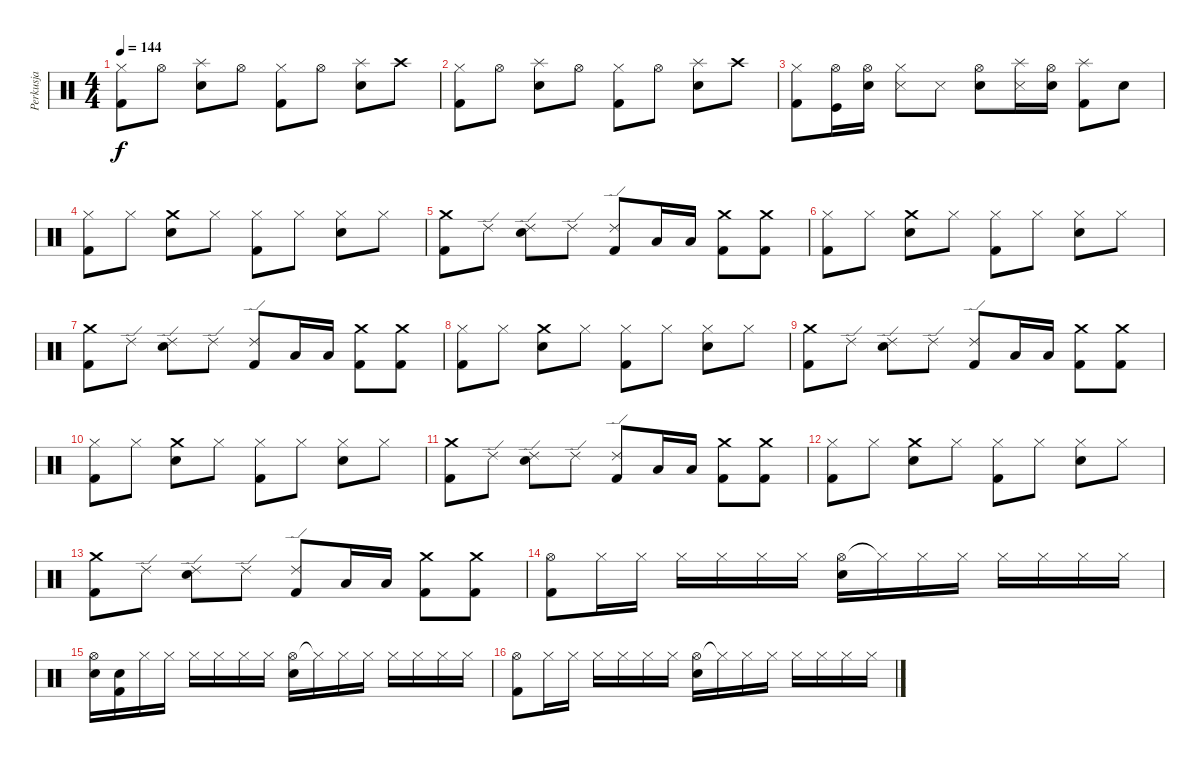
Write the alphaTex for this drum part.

\track ("Perkusja" "Perkusja") {instrument percussion}
\staff {score}
\articulation defaults
\ts (4 4)
\tempo 144
\clef neutral
\ks c
("Kick (hit) 2" "Hi-Hat (closed)").8{dy f} "Hi-Hat (open)".8 ("Snare (hit) 2" "Splash (hit)").8 "Hi-Hat (open)".8 ("Kick (hit) 2" "Hi-Hat (closed)").8 "Hi-Hat (open)".8 ("Snare (hit) 2" "Splash (hit)").8 "Crash high (hit)".8 |
("Kick (hit) 2" "Hi-Hat (closed)").8 "Hi-Hat (open)".8 ("Snare (hit) 2" "Splash (hit)").8 "Hi-Hat (open)".8 ("Kick (hit) 2" "Hi-Hat (closed)").8 "Hi-Hat (open)".8 ("Snare (hit) 2" "Splash (hit)").8 "Crash high (hit)".8 |
("Kick (hit) 2" "Hi-Hat (closed)").8 ("Hi-Hat (open)" "Kick (hit)").16 ("Snare (hit) 2" "Hi-Hat (open)").16 ("Snare (side stick) 3" "Hi-Hat (closed)").8 "Snare (side stick) 3".8 ("Snare (hit) 2" "Hi-Hat (open)").8 ("Snare (side stick) 3" "Splash (hit)").16 ("Snare (hit) 2" "Hi-Hat (open)").16 ("Kick (hit) 2" "Splash (hit)").8 "Snare (hit) 2".8 |
("Hi-Hat (closed)" "Kick (hit) 2").8 "Hi-Hat (closed)".8 ("Crash medium (hit)" "Snare (hit) 2").8 "Hi-Hat (closed)".8 ("Hi-Hat (closed)" "Kick (hit) 2").8 "Hi-Hat (closed)".8 ("Snare (hit) 2" "Hi-Hat (closed)").8 "Hi-Hat (closed)".8 |
("Crash medium (hit)" "Kick (hit) 2").8 "Ride (edge) 2".8 ("Snare (hit) 2" "Ride (edge) 2").8 "Ride (edge) 2".8 ("Ride (edge) 2" "Kick (hit) 2").8 "Low Tom (hit)".16 "Low Tom (hit)".16 ("Crash medium (hit)" "Kick (hit) 2").8 ("Crash medium (hit)" "Kick (hit) 2").8 |
("Hi-Hat (closed)" "Kick (hit) 2").8 "Hi-Hat (closed)".8 ("Crash medium (hit)" "Snare (hit) 2").8 "Hi-Hat (closed)".8 ("Hi-Hat (closed)" "Kick (hit) 2").8 "Hi-Hat (closed)".8 ("Snare (hit) 2" "Hi-Hat (closed)").8 "Hi-Hat (closed)".8 |
("Crash medium (hit)" "Kick (hit) 2").8 "Ride (edge) 2".8 ("Snare (hit) 2" "Ride (edge) 2").8 "Ride (edge) 2".8 ("Ride (edge) 2" "Kick (hit) 2").8 "Low Tom (hit)".16 "Low Tom (hit)".16 ("Crash medium (hit)" "Kick (hit) 2").8 ("Crash medium (hit)" "Kick (hit) 2").8 |
("Hi-Hat (closed)" "Kick (hit) 2").8 "Hi-Hat (closed)".8 ("Crash medium (hit)" "Snare (hit) 2").8 "Hi-Hat (closed)".8 ("Hi-Hat (closed)" "Kick (hit) 2").8 "Hi-Hat (closed)".8 ("Snare (hit) 2" "Hi-Hat (closed)").8 "Hi-Hat (closed)".8 |
("Crash medium (hit)" "Kick (hit) 2").8 "Ride (edge) 2".8 ("Snare (hit) 2" "Ride (edge) 2").8 "Ride (edge) 2".8 ("Ride (edge) 2" "Kick (hit) 2").8 "Low Tom (hit)".16 "Low Tom (hit)".16 ("Crash medium (hit)" "Kick (hit) 2").8 ("Crash medium (hit)" "Kick (hit) 2").8 |
("Hi-Hat (closed)" "Kick (hit) 2").8 "Hi-Hat (closed)".8 ("Crash medium (hit)" "Snare (hit) 2").8 "Hi-Hat (closed)".8 ("Hi-Hat (closed)" "Kick (hit) 2").8 "Hi-Hat (closed)".8 ("Snare (hit) 2" "Hi-Hat (closed)").8 "Hi-Hat (closed)".8 |
("Crash medium (hit)" "Kick (hit) 2").8 "Ride (edge) 2".8 ("Snare (hit) 2" "Ride (edge) 2").8 "Ride (edge) 2".8 ("Ride (edge) 2" "Kick (hit) 2").8 "Low Tom (hit)".16 "Low Tom (hit)".16 ("Crash medium (hit)" "Kick (hit) 2").8 ("Crash medium (hit)" "Kick (hit) 2").8 |
("Hi-Hat (closed)" "Kick (hit) 2").8 "Hi-Hat (closed)".8 ("Crash medium (hit)" "Snare (hit) 2").8 "Hi-Hat (closed)".8 ("Hi-Hat (closed)" "Kick (hit) 2").8 "Hi-Hat (closed)".8 ("Snare (hit) 2" "Hi-Hat (closed)").8 "Hi-Hat (closed)".8 |
("Crash medium (hit)" "Kick (hit) 2").8 "Ride (edge) 2".8 ("Snare (hit) 2" "Ride (edge) 2").8 "Ride (edge) 2".8 ("Ride (edge) 2" "Kick (hit) 2").8 "Low Tom (hit)".16 "Low Tom (hit)".16 ("Crash medium (hit)" "Kick (hit) 2").8 ("Crash medium (hit)" "Kick (hit) 2").8 |
("Hi-Hat (open)" "Kick (hit) 2").8 "Hi-Hat (closed)".16 "Hi-Hat (closed)".16 "Hi-Hat (closed)".16 "Hi-Hat (closed)".16 "Hi-Hat (closed)".16 "Hi-Hat (closed)".16 ("Hi-Hat (open)" "Electric Snare (hit)").16 "Hi-Hat (closed)"{t}.16 "Hi-Hat (closed)".16 "Hi-Hat (closed)".16 "Hi-Hat (closed)".16 "Hi-Hat (closed)".16 "Hi-Hat (closed)".16 "Hi-Hat (closed)".16 |
("Hi-Hat (open)" "Electric Snare (hit)").16 ("Electric Snare (hit)" "Kick (hit) 2").16 "Hi-Hat (closed)".16 "Hi-Hat (closed)".16 "Hi-Hat (closed)".16 "Hi-Hat (closed)".16 "Hi-Hat (closed)".16 "Hi-Hat (closed)".16 ("Hi-Hat (open)" "Electric Snare (hit)").16 "Hi-Hat (closed)"{t}.16 "Hi-Hat (closed)".16 "Hi-Hat (closed)".16 "Hi-Hat (closed)".16 "Hi-Hat (closed)".16 "Hi-Hat (closed)".16 "Hi-Hat (closed)".16 |
("Hi-Hat (open)" "Kick (hit) 2").8 "Hi-Hat (closed)".16 "Hi-Hat (closed)".16 "Hi-Hat (closed)".16 "Hi-Hat (closed)".16 "Hi-Hat (closed)".16 "Hi-Hat (closed)".16 ("Hi-Hat (open)" "Electric Snare (hit)").16 "Hi-Hat (closed)"{t}.16 "Hi-Hat (closed)".16 "Hi-Hat (closed)".16 "Hi-Hat (closed)".16 "Hi-Hat (closed)".16 "Hi-Hat (closed)".16 "Hi-Hat (closed)".16
